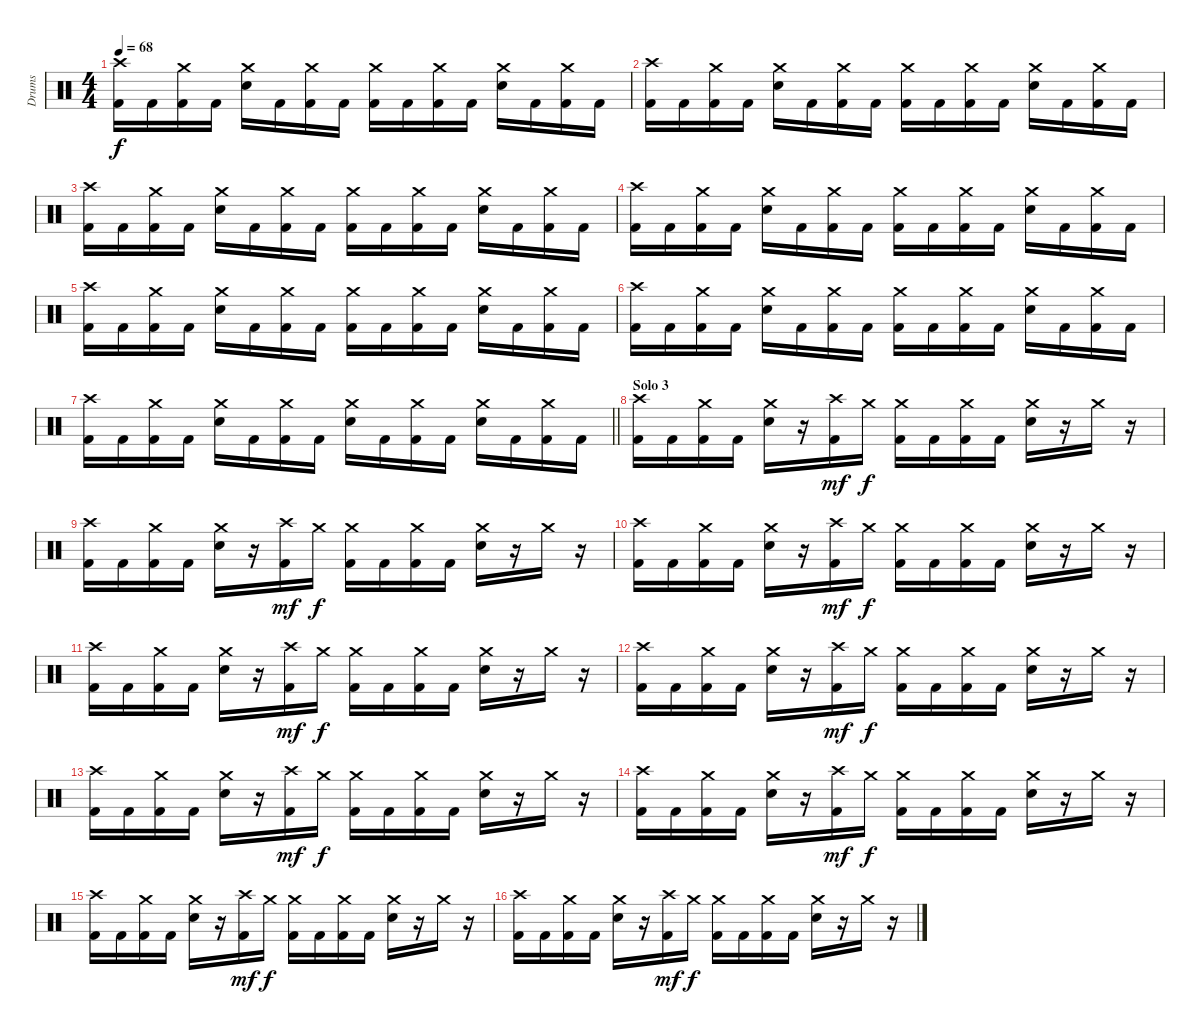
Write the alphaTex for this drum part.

\track ("Drums" "Drums") {instrument percussion}
\staff {score}
\articulation defaults
\ts (4 4)
\tempo 68
\clef neutral
\ks c
("Crash high (hit)" "Kick (hit) 2").16{dy f} "Kick (hit) 2".16 ("Crash medium (hit)" "Kick (hit) 2").16 "Kick (hit) 2".16 ("Crash medium (hit)" "Electric Snare (hit)").16 "Kick (hit) 2".16 ("Crash medium (hit)" "Kick (hit) 2").16 "Kick (hit) 2".16 ("Crash medium (hit)" "Kick (hit) 2").16 "Kick (hit) 2".16 ("Crash medium (hit)" "Kick (hit) 2").16 "Kick (hit) 2".16 ("Crash medium (hit)" "Electric Snare (hit)").16 "Kick (hit) 2".16 ("Crash medium (hit)" "Kick (hit) 2").16 "Kick (hit) 2".16 |
("Crash high (hit)" "Kick (hit) 2").16 "Kick (hit) 2".16 ("Crash medium (hit)" "Kick (hit) 2").16 "Kick (hit) 2".16 ("Crash medium (hit)" "Electric Snare (hit)").16 "Kick (hit) 2".16 ("Crash medium (hit)" "Kick (hit) 2").16 "Kick (hit) 2".16 ("Crash medium (hit)" "Kick (hit) 2").16 "Kick (hit) 2".16 ("Crash medium (hit)" "Kick (hit) 2").16 "Kick (hit) 2".16 ("Crash medium (hit)" "Electric Snare (hit)").16 "Kick (hit) 2".16 ("Crash medium (hit)" "Kick (hit) 2").16 "Kick (hit) 2".16 |
("Crash high (hit)" "Kick (hit) 2").16 "Kick (hit) 2".16 ("Crash medium (hit)" "Kick (hit) 2").16 "Kick (hit) 2".16 ("Crash medium (hit)" "Electric Snare (hit)").16 "Kick (hit) 2".16 ("Crash medium (hit)" "Kick (hit) 2").16 "Kick (hit) 2".16 ("Crash medium (hit)" "Kick (hit) 2").16 "Kick (hit) 2".16 ("Crash medium (hit)" "Kick (hit) 2").16 "Kick (hit) 2".16 ("Crash medium (hit)" "Electric Snare (hit)").16 "Kick (hit) 2".16 ("Crash medium (hit)" "Kick (hit) 2").16 "Kick (hit) 2".16 |
("Crash high (hit)" "Kick (hit) 2").16 "Kick (hit) 2".16 ("Crash medium (hit)" "Kick (hit) 2").16 "Kick (hit) 2".16 ("Crash medium (hit)" "Electric Snare (hit)").16 "Kick (hit) 2".16 ("Crash medium (hit)" "Kick (hit) 2").16 "Kick (hit) 2".16 ("Crash medium (hit)" "Kick (hit) 2").16 "Kick (hit) 2".16 ("Crash medium (hit)" "Kick (hit) 2").16 "Kick (hit) 2".16 ("Crash medium (hit)" "Electric Snare (hit)").16 "Kick (hit) 2".16 ("Crash medium (hit)" "Kick (hit) 2").16 "Kick (hit) 2".16 |
("Crash high (hit)" "Kick (hit) 2").16 "Kick (hit) 2".16 ("Crash medium (hit)" "Kick (hit) 2").16 "Kick (hit) 2".16 ("Crash medium (hit)" "Electric Snare (hit)").16 "Kick (hit) 2".16 ("Crash medium (hit)" "Kick (hit) 2").16 "Kick (hit) 2".16 ("Crash medium (hit)" "Kick (hit) 2").16 "Kick (hit) 2".16 ("Crash medium (hit)" "Kick (hit) 2").16 "Kick (hit) 2".16 ("Crash medium (hit)" "Electric Snare (hit)").16 "Kick (hit) 2".16 ("Crash medium (hit)" "Kick (hit) 2").16 "Kick (hit) 2".16 |
("Crash high (hit)" "Kick (hit) 2").16 "Kick (hit) 2".16 ("Crash medium (hit)" "Kick (hit) 2").16 "Kick (hit) 2".16 ("Crash medium (hit)" "Electric Snare (hit)").16 "Kick (hit) 2".16 ("Crash medium (hit)" "Kick (hit) 2").16 "Kick (hit) 2".16 ("Crash medium (hit)" "Kick (hit) 2").16 "Kick (hit) 2".16 ("Crash medium (hit)" "Kick (hit) 2").16 "Kick (hit) 2".16 ("Crash medium (hit)" "Electric Snare (hit)").16 "Kick (hit) 2".16 ("Crash medium (hit)" "Kick (hit) 2").16 "Kick (hit) 2".16 |
\barLineRight lightlight
("Crash high (hit)" "Kick (hit) 2").16 "Kick (hit) 2".16 ("Crash medium (hit)" "Kick (hit) 2").16 "Kick (hit) 2".16 ("Crash medium (hit)" "Electric Snare (hit)").16 "Kick (hit) 2".16 ("Crash medium (hit)" "Kick (hit) 2").16 "Kick (hit) 2".16 ("Crash medium (hit)" "Electric Snare (hit)").16 "Kick (hit) 2".16 ("Crash medium (hit)" "Kick (hit) 2").16 "Kick (hit) 2".16 ("Crash medium (hit)" "Electric Snare (hit)").16 "Kick (hit) 2".16 ("Crash medium (hit)" "Kick (hit) 2").16 "Kick (hit) 2".16 |
\section ("" "Solo 3")
("Crash high (hit)" "Kick (hit) 2").16 "Kick (hit) 2".16 ("Crash medium (hit)" "Kick (hit) 2").16 "Kick (hit) 2".16 ("Crash medium (hit)" "Electric Snare (hit)").16 r.16 ("Crash high (hit)" "Kick (hit) 2").16{dy mf} "Crash medium (hit)".16{dy f} ("Crash medium (hit)" "Kick (hit) 2").16 "Kick (hit) 2".16 ("Crash medium (hit)" "Kick (hit) 2").16 "Kick (hit) 2".16 ("Crash medium (hit)" "Electric Snare (hit)").16 r.16 "Crash medium (hit)".16 r.16 |
("Crash high (hit)" "Kick (hit) 2").16 "Kick (hit) 2".16 ("Crash medium (hit)" "Kick (hit) 2").16 "Kick (hit) 2".16 ("Crash medium (hit)" "Electric Snare (hit)").16 r.16 ("Crash high (hit)" "Kick (hit) 2").16{dy mf} "Crash medium (hit)".16{dy f} ("Crash medium (hit)" "Kick (hit) 2").16 "Kick (hit) 2".16 ("Crash medium (hit)" "Kick (hit) 2").16 "Kick (hit) 2".16 ("Crash medium (hit)" "Electric Snare (hit)").16 r.16 "Crash medium (hit)".16 r.16 |
("Crash high (hit)" "Kick (hit) 2").16 "Kick (hit) 2".16 ("Crash medium (hit)" "Kick (hit) 2").16 "Kick (hit) 2".16 ("Crash medium (hit)" "Electric Snare (hit)").16 r.16 ("Crash high (hit)" "Kick (hit) 2").16{dy mf} "Crash medium (hit)".16{dy f} ("Crash medium (hit)" "Kick (hit) 2").16 "Kick (hit) 2".16 ("Crash medium (hit)" "Kick (hit) 2").16 "Kick (hit) 2".16 ("Crash medium (hit)" "Electric Snare (hit)").16 r.16 "Crash medium (hit)".16 r.16 |
("Crash high (hit)" "Kick (hit) 2").16 "Kick (hit) 2".16 ("Crash medium (hit)" "Kick (hit) 2").16 "Kick (hit) 2".16 ("Crash medium (hit)" "Electric Snare (hit)").16 r.16 ("Crash high (hit)" "Kick (hit) 2").16{dy mf} "Crash medium (hit)".16{dy f} ("Crash medium (hit)" "Kick (hit) 2").16 "Kick (hit) 2".16 ("Crash medium (hit)" "Kick (hit) 2").16 "Kick (hit) 2".16 ("Crash medium (hit)" "Electric Snare (hit)").16 r.16 "Crash medium (hit)".16 r.16 |
("Crash high (hit)" "Kick (hit) 2").16 "Kick (hit) 2".16 ("Crash medium (hit)" "Kick (hit) 2").16 "Kick (hit) 2".16 ("Crash medium (hit)" "Electric Snare (hit)").16 r.16 ("Crash high (hit)" "Kick (hit) 2").16{dy mf} "Crash medium (hit)".16{dy f} ("Crash medium (hit)" "Kick (hit) 2").16 "Kick (hit) 2".16 ("Crash medium (hit)" "Kick (hit) 2").16 "Kick (hit) 2".16 ("Crash medium (hit)" "Electric Snare (hit)").16 r.16 "Crash medium (hit)".16 r.16 |
("Crash high (hit)" "Kick (hit) 2").16 "Kick (hit) 2".16 ("Crash medium (hit)" "Kick (hit) 2").16 "Kick (hit) 2".16 ("Crash medium (hit)" "Electric Snare (hit)").16 r.16 ("Crash high (hit)" "Kick (hit) 2").16{dy mf} "Crash medium (hit)".16{dy f} ("Crash medium (hit)" "Kick (hit) 2").16 "Kick (hit) 2".16 ("Crash medium (hit)" "Kick (hit) 2").16 "Kick (hit) 2".16 ("Crash medium (hit)" "Electric Snare (hit)").16 r.16 "Crash medium (hit)".16 r.16 |
("Crash high (hit)" "Kick (hit) 2").16 "Kick (hit) 2".16 ("Crash medium (hit)" "Kick (hit) 2").16 "Kick (hit) 2".16 ("Crash medium (hit)" "Electric Snare (hit)").16 r.16 ("Crash high (hit)" "Kick (hit) 2").16{dy mf} "Crash medium (hit)".16{dy f} ("Crash medium (hit)" "Kick (hit) 2").16 "Kick (hit) 2".16 ("Crash medium (hit)" "Kick (hit) 2").16 "Kick (hit) 2".16 ("Crash medium (hit)" "Electric Snare (hit)").16 r.16 "Crash medium (hit)".16 r.16 |
("Crash high (hit)" "Kick (hit) 2").16 "Kick (hit) 2".16 ("Crash medium (hit)" "Kick (hit) 2").16 "Kick (hit) 2".16 ("Crash medium (hit)" "Electric Snare (hit)").16 r.16 ("Crash high (hit)" "Kick (hit) 2").16{dy mf} "Crash medium (hit)".16{dy f} ("Crash medium (hit)" "Kick (hit) 2").16 "Kick (hit) 2".16 ("Crash medium (hit)" "Kick (hit) 2").16 "Kick (hit) 2".16 ("Crash medium (hit)" "Electric Snare (hit)").16 r.16 "Crash medium (hit)".16 r.16 |
("Crash high (hit)" "Kick (hit) 2").16 "Kick (hit) 2".16 ("Crash medium (hit)" "Kick (hit) 2").16 "Kick (hit) 2".16 ("Crash medium (hit)" "Electric Snare (hit)").16 r.16 ("Crash high (hit)" "Kick (hit) 2").16{dy mf} "Crash medium (hit)".16{dy f} ("Crash medium (hit)" "Kick (hit) 2").16 "Kick (hit) 2".16 ("Crash medium (hit)" "Kick (hit) 2").16 "Kick (hit) 2".16 ("Crash medium (hit)" "Electric Snare (hit)").16 r.16 "Crash medium (hit)".16 r.16
